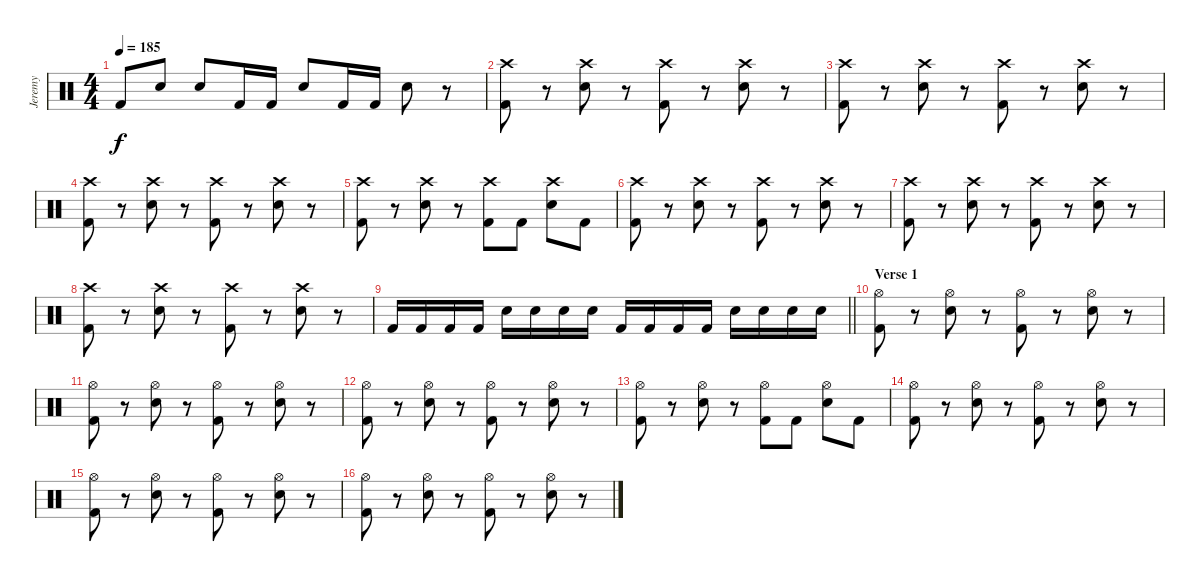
\track ("Jeremy" "Jeremy") {instrument percussion}
\staff {score}
\articulation defaults
\ts (4 4)
\tempo 185
\clef neutral
\ks c "Kick (hit) 2".8{dy f} "Snare (hit) 2".8 "Snare (hit) 2".8 "Kick (hit) 2".16 "Kick (hit) 2".16 "Snare (hit) 2".8 "Kick (hit) 2".16 "Kick (hit) 2".16 "Snare (hit) 2".8
r.8 |
("Crash high (hit)" "Kick (hit) 2").8 r.8 ("Crash high (hit)" "Snare (hit) 2").8 r.8 ("Crash high (hit)" "Kick (hit) 2").8 r.8 ("Crash high (hit)" "Snare (hit) 2").8 r.8 |
("Crash high (hit)" "Kick (hit) 2").8 r.8 ("Crash high (hit)" "Snare (hit) 2").8 r.8 ("Crash high (hit)" "Kick (hit) 2").8 r.8 ("Crash high (hit)" "Snare (hit) 2").8 r.8 |
("Crash high (hit)" "Kick (hit) 2").8 r.8 ("Crash high (hit)" "Snare (hit) 2").8 r.8 ("Crash high (hit)" "Kick (hit) 2").8 r.8 ("Crash high (hit)" "Snare (hit) 2").8 r.8 |
("Crash high (hit)" "Kick (hit) 2").8 r.8 ("Crash high (hit)" "Snare (hit) 2").8 r.8 ("Crash high (hit)" "Kick (hit) 2").8 "Kick (hit) 2".8 ("Crash high (hit)" "Snare (hit) 2").8 "Kick (hit) 2".8 |
("Crash high (hit)" "Kick (hit) 2").8 r.8 ("Crash high (hit)" "Snare (hit) 2").8 r.8 ("Crash high (hit)" "Kick (hit) 2").8 r.8 ("Crash high (hit)" "Snare (hit) 2").8 r.8 |
("Crash high (hit)" "Kick (hit) 2").8 r.8 ("Crash high (hit)" "Snare (hit) 2").8 r.8 ("Crash high (hit)" "Kick (hit) 2").8 r.8 ("Crash high (hit)" "Snare (hit) 2").8 r.8 |
("Crash high (hit)" "Kick (hit) 2").8 r.8 ("Crash high (hit)" "Snare (hit) 2").8 r.8 ("Crash high (hit)" "Kick (hit) 2").8 r.8 ("Crash high (hit)" "Snare (hit) 2").8 r.8 |
\barLineRight lightlight "Kick (hit) 2".16 "Kick (hit) 2".16 "Kick (hit) 2".16 "Kick (hit) 2".16 "Snare (hit) 2".16 "Snare (hit) 2".16 "Snare (hit) 2".16 "Snare (hit) 2".16 "Kick (hit) 2".16 "Kick (hit) 2".16 "Kick (hit) 2".16 "Kick (hit) 2".16 "Snare (hit) 2".16 "Snare (hit) 2".16 "Snare (hit) 2".16 "Snare (hit) 2".16
|
\section ("" "Verse 1")
("Hi-Hat (open)" "Kick (hit) 2").8 r.8 ("Hi-Hat (open)" "Snare (hit) 2").8 r.8 ("Hi-Hat (open)" "Kick (hit) 2").8 r.8 ("Hi-Hat (open)" "Snare (hit) 2").8 r.8 |
("Hi-Hat (open)" "Kick (hit) 2").8 r.8 ("Hi-Hat (open)" "Snare (hit) 2").8 r.8 ("Hi-Hat (open)" "Kick (hit) 2").8 r.8 ("Hi-Hat (open)" "Snare (hit) 2").8 r.8 |
("Hi-Hat (open)" "Kick (hit) 2").8 r.8 ("Hi-Hat (open)" "Snare (hit) 2").8 r.8 ("Hi-Hat (open)" "Kick (hit) 2").8 r.8 ("Hi-Hat (open)" "Snare (hit) 2").8 r.8 |
("Hi-Hat (open)" "Kick (hit) 2").8 r.8 ("Hi-Hat (open)" "Snare (hit) 2").8 r.8 ("Hi-Hat (open)" "Kick (hit) 2").8 "Kick (hit) 2".8 ("Hi-Hat (open)" "Snare (hit) 2").8 "Kick (hit) 2".8 |
("Hi-Hat (open)" "Kick (hit) 2").8 r.8 ("Hi-Hat (open)" "Snare (hit) 2").8 r.8 ("Hi-Hat (open)" "Kick (hit) 2").8 r.8 ("Hi-Hat (open)" "Snare (hit) 2").8 r.8 |
("Hi-Hat (open)" "Kick (hit) 2").8 r.8 ("Hi-Hat (open)" "Snare (hit) 2").8 r.8 ("Hi-Hat (open)" "Kick (hit) 2").8 r.8 ("Hi-Hat (open)" "Snare (hit) 2").8 r.8 |
("Hi-Hat (open)" "Kick (hit) 2").8 r.8 ("Hi-Hat (open)" "Snare (hit) 2").8 r.8 ("Hi-Hat (open)" "Kick (hit) 2").8 r.8 ("Hi-Hat (open)" "Snare (hit) 2").8 r.8
